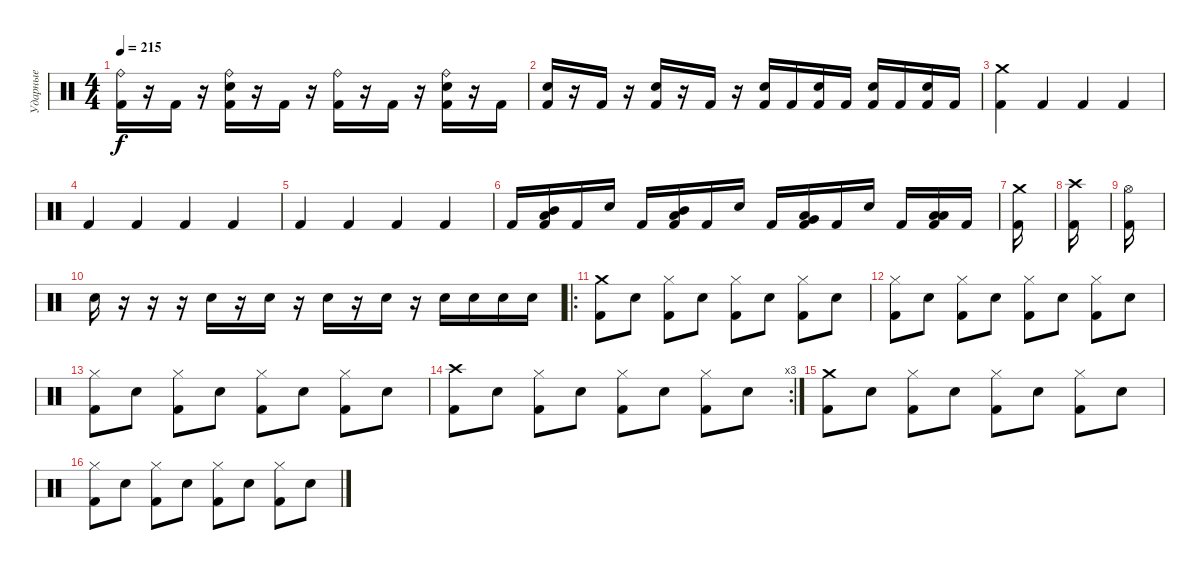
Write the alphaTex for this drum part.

\track ("Ударные" "Ударные") {instrument percussion}
\staff {score}
\articulation defaults
\ts (4 4)
\tempo 215
\clef neutral
\ks c
("Ride (bell)" "Kick (hit) 2").16{dy f} r.16 "Kick (hit) 2".16 r.16 ("Ride (bell)" "Snare (hit) 2" "Kick (hit) 2").16 r.16 "Kick (hit) 2".16 r.16 ("Ride (bell)" "Kick (hit) 2").16 r.16 "Kick (hit) 2".16 r.16 ("Ride (bell)" "Snare (hit) 2" "Kick (hit) 2").16 r.16 "Kick (hit) 2".16 |
("Snare (hit) 2" "Kick (hit) 2").16 r.16 "Kick (hit) 2".16 r.16 ("Snare (hit) 2" "Kick (hit) 2").16 r.16 "Kick (hit) 2".16 r.16 ("Snare (hit) 2" "Kick (hit) 2").16 "Kick (hit) 2".16 ("Snare (hit) 2" "Kick (hit) 2").16 "Kick (hit) 2".16 ("Snare (hit) 2" "Kick (hit) 2").16 "Kick (hit) 2".16 ("Snare (hit) 2" "Kick (hit) 2").16 "Kick (hit) 2".16 |
("Crash medium (hit)" "Kick (hit) 2").4 "Kick (hit) 2".4 "Kick (hit) 2".4 "Kick (hit) 2".4 |
"Kick (hit) 2".4 "Kick (hit) 2".4 "Kick (hit) 2".4 "Kick (hit) 2".4 |
"Kick (hit) 2".4 "Kick (hit) 2".4 "Kick (hit) 2".4 "Kick (hit) 2".4 |
"Kick (hit) 2".16 ("Low Tom (hit)" "Mid Tom (hit)" "Kick (hit) 2").16 "Kick (hit) 2".16 "Snare (hit)".16 "Kick (hit) 2".16 ("Low Tom (hit)" "Mid Tom (hit)" "Kick (hit) 2").16 "Kick (hit) 2".16 "Snare (hit)".16 "Kick (hit) 2".16 ("Low Floor Tom (hit)" "Very Low Tom (hit)" "Kick (hit) 2").16 "Kick (hit) 2".16 "Snare (hit)".16 "Kick (hit) 2".16 ("Low Floor Tom (hit)" "Low Floor Tom (hit)" "Kick (hit) 2").16 "Kick (hit) 2".16 |
("Crash medium (hit)" "Kick (hit) 2").16 |
("Crash high (hit)" "Kick (hit) 2").16 |
("Hi-Hat (open)" "Kick (hit) 2").16 |
"Snare (hit) 2".16 r.16 r.16 r.16 "Snare (hit) 2".16 r.16 "Snare (hit) 2".16 r.16 "Snare (hit) 2".16 r.16 "Snare (hit) 2".16 r.16 "Snare (hit) 2".16 "Snare (hit) 2".16 "Snare (hit) 2".16 "Snare (hit) 2".16 |
\ro
("Crash medium (hit)" "Kick (hit) 2").8 "Snare (hit) 2".8 ("Hi-Hat (closed)" "Kick (hit) 2").8 "Snare (hit) 2".8 ("Hi-Hat (closed)" "Kick (hit) 2").8 "Snare (hit) 2".8 ("Hi-Hat (closed)" "Kick (hit) 2").8 "Snare (hit) 2".8 |
("Hi-Hat (closed)" "Kick (hit) 2").8 "Snare (hit) 2".8 ("Hi-Hat (closed)" "Kick (hit) 2").8 "Snare (hit) 2".8 ("Hi-Hat (closed)" "Kick (hit) 2").8 "Snare (hit) 2".8 ("Hi-Hat (closed)" "Kick (hit) 2").8 "Snare (hit) 2".8 |
("Hi-Hat (closed)" "Kick (hit) 2").8 "Snare (hit) 2".8 ("Hi-Hat (closed)" "Kick (hit) 2").8 "Snare (hit) 2".8 ("Hi-Hat (closed)" "Kick (hit) 2").8 "Snare (hit) 2".8 ("Hi-Hat (closed)" "Kick (hit) 2").8 "Snare (hit) 2".8 |
\rc 3
("Crash high (hit)" "Kick (hit) 2").8 "Snare (hit) 2".8 ("Hi-Hat (closed)" "Kick (hit) 2").8 "Snare (hit) 2".8 ("Hi-Hat (closed)" "Kick (hit) 2").8 "Snare (hit) 2".8 ("Hi-Hat (closed)" "Kick (hit) 2").8 "Snare (hit) 2".8 |
("Crash medium (hit)" "Kick (hit) 2").8 "Snare (hit) 2".8 ("Hi-Hat (closed)" "Kick (hit) 2").8 "Snare (hit) 2".8 ("Hi-Hat (closed)" "Kick (hit) 2").8 "Snare (hit) 2".8 ("Hi-Hat (closed)" "Kick (hit) 2").8 "Snare (hit) 2".8 |
("Hi-Hat (closed)" "Kick (hit) 2").8 "Snare (hit) 2".8 ("Hi-Hat (closed)" "Kick (hit) 2").8 "Snare (hit) 2".8 ("Hi-Hat (closed)" "Kick (hit) 2").8 "Snare (hit) 2".8 ("Hi-Hat (closed)" "Kick (hit) 2").8 "Snare (hit) 2".8
